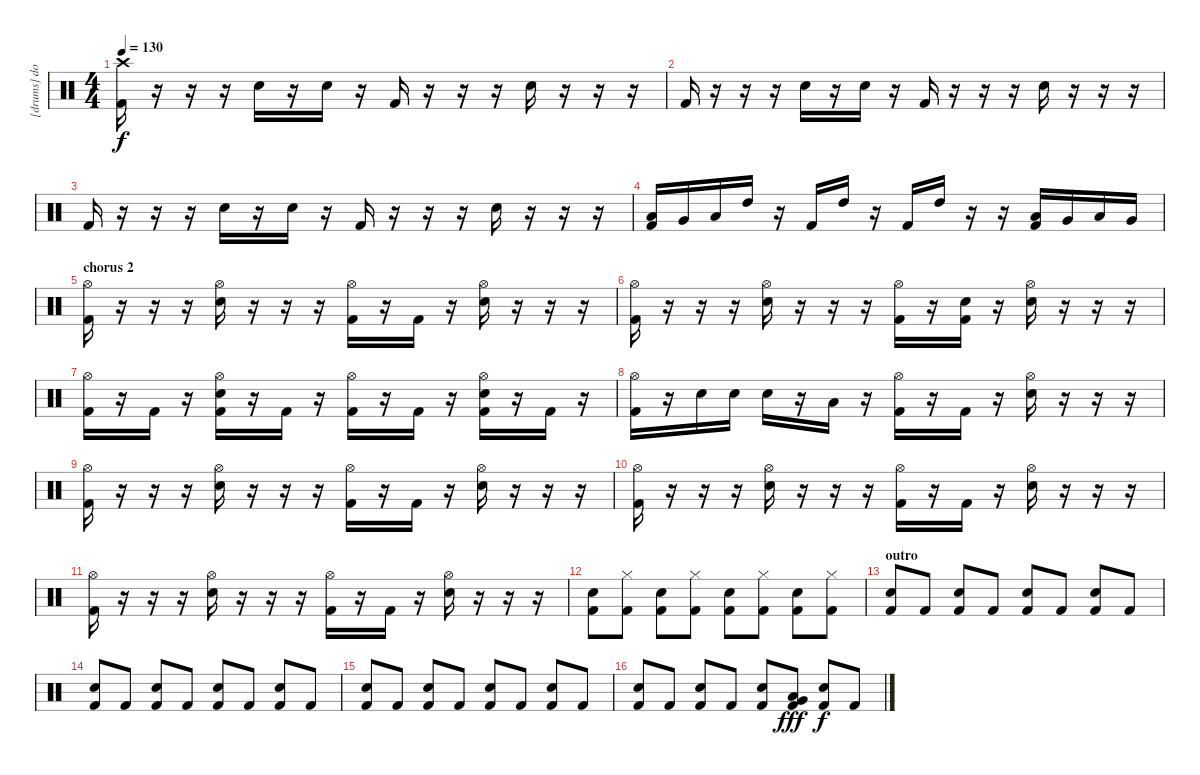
\track ("[drums] dom" "[drums] do") {instrument percussion}
\staff {score}
\articulation defaults
\ts (4 4)
\tempo 130
\clef neutral
\ks c
("Crash high (hit)" "Kick (hit) 2").16{dy f} r.16 r.16 r.16 "Snare (hit) 2".16 r.16 "Snare (hit) 2".16 r.16 "Kick (hit) 2".16 r.16 r.16 r.16 "Snare (hit) 2".16 r.16 r.16 r.16 |
"Kick (hit) 2".16 r.16 r.16 r.16 "Snare (hit) 2".16 r.16 "Snare (hit) 2".16 r.16 "Kick (hit) 2".16 r.16 r.16 r.16 "Snare (hit) 2".16 r.16 r.16 r.16 |
"Kick (hit) 2".16 r.16 r.16 r.16 "Snare (hit) 2".16 r.16 "Snare (hit) 2".16 r.16 "Kick (hit) 2".16 r.16 r.16 r.16 "Snare (hit) 2".16 r.16 r.16 r.16 |
("Low Floor Tom (hit)" "Kick (hit) 2").16 "Very Low Tom (hit)".16 "Low Floor Tom (hit)".16 "High Tom (hit)".16 r.16 "Kick (hit) 2".16 "High Tom (hit)".16 r.16 "Kick (hit) 2".16 "High Tom (hit)".16 r.16 r.16 ("Low Floor Tom (hit)" "Kick (hit) 2").16 "Very Low Tom (hit)".16 "Low Floor Tom (hit)".16 "Very Low Tom (hit)".16 |
\section ("" "chorus 2")
("Hi-Hat (open)" "Kick (hit) 2").16 r.16 r.16 r.16 ("Hi-Hat (open)" "Snare (hit) 2").16 r.16 r.16 r.16 ("Hi-Hat (open)" "Kick (hit) 2").16 r.16 "Kick (hit) 2".16 r.16 ("Hi-Hat (open)" "Snare (hit) 2").16 r.16 r.16 r.16 |
("Hi-Hat (open)" "Kick (hit) 2").16 r.16 r.16 r.16 ("Hi-Hat (open)" "Snare (hit) 2").16 r.16 r.16 r.16 ("Hi-Hat (open)" "Kick (hit) 2").16 r.16 ("Snare (hit) 2" "Kick (hit) 2").16 r.16 ("Hi-Hat (open)" "Snare (hit) 2").16 r.16 r.16 r.16 |
("Hi-Hat (open)" "Kick (hit) 2").16 r.16 "Kick (hit) 2".16 r.16 ("Hi-Hat (open)" "Snare (hit) 2" "Kick (hit) 2").16 r.16 "Kick (hit) 2".16 r.16 ("Hi-Hat (open)" "Kick (hit) 2").16 r.16 "Kick (hit) 2".16 r.16 ("Hi-Hat (open)" "Snare (hit) 2" "Kick (hit) 2").16 r.16 "Kick (hit) 2".16 r.16 |
("Hi-Hat (open)" "Kick (hit) 2").16 r.16 "Snare (hit) 2".16 "Snare (hit) 2".16 "Snare (hit) 2".16 r.16 "Low Floor Tom (hit)".16 r.16 ("Hi-Hat (open)" "Kick (hit) 2").16 r.16 "Kick (hit) 2".16 r.16 ("Hi-Hat (open)" "Snare (hit) 2").16 r.16 r.16 r.16 |
("Hi-Hat (open)" "Kick (hit) 2").16 r.16 r.16 r.16 ("Hi-Hat (open)" "Snare (hit) 2").16 r.16 r.16 r.16 ("Hi-Hat (open)" "Kick (hit) 2").16 r.16 "Kick (hit) 2".16 r.16 ("Hi-Hat (open)" "Snare (hit) 2").16 r.16 r.16 r.16 |
("Hi-Hat (open)" "Kick (hit) 2").16 r.16 r.16 r.16 ("Hi-Hat (open)" "Snare (hit) 2").16 r.16 r.16 r.16 ("Hi-Hat (open)" "Kick (hit) 2").16 r.16 "Kick (hit) 2".16 r.16 ("Hi-Hat (open)" "Snare (hit) 2").16 r.16 r.16 r.16 |
("Hi-Hat (open)" "Kick (hit) 2").16 r.16 r.16 r.16 ("Hi-Hat (open)" "Snare (hit) 2").16 r.16 r.16 r.16 ("Hi-Hat (open)" "Kick (hit) 2").16 r.16 "Kick (hit) 2".16 r.16 ("Hi-Hat (open)" "Snare (hit) 2").16 r.16 r.16 r.16 |
("Snare (hit) 2" "Kick (hit) 2").8 ("Hi-Hat (closed)" "Kick (hit) 2").8 ("Snare (hit) 2" "Kick (hit) 2").8 ("Hi-Hat (closed)" "Kick (hit) 2").8 ("Snare (hit) 2" "Kick (hit) 2").8 ("Hi-Hat (closed)" "Kick (hit) 2").8 ("Snare (hit) 2" "Kick (hit) 2").8 ("Hi-Hat (closed)" "Kick (hit) 2").8 |
\section ("" "outro")
("Snare (hit) 2" "Kick (hit) 2").8 "Kick (hit) 2".8 ("Snare (hit) 2" "Kick (hit) 2").8 "Kick (hit) 2".8 ("Snare (hit) 2" "Kick (hit) 2").8 "Kick (hit) 2".8 ("Snare (hit) 2" "Kick (hit) 2").8 "Kick (hit) 2".8 |
("Snare (hit) 2" "Kick (hit) 2").8 "Kick (hit) 2".8 ("Snare (hit) 2" "Kick (hit) 2").8 "Kick (hit) 2".8 ("Snare (hit) 2" "Kick (hit) 2").8 "Kick (hit) 2".8 ("Snare (hit) 2" "Kick (hit) 2").8 "Kick (hit) 2".8 |
("Snare (hit) 2" "Kick (hit) 2").8 "Kick (hit) 2".8 ("Snare (hit) 2" "Kick (hit) 2").8 "Kick (hit) 2".8 ("Snare (hit) 2" "Kick (hit) 2").8 "Kick (hit) 2".8 ("Snare (hit) 2" "Kick (hit) 2").8 "Kick (hit) 2".8 |
("Snare (hit) 2" "Kick (hit) 2").8 "Kick (hit) 2".8 ("Snare (hit) 2" "Kick (hit) 2").8 "Kick (hit) 2".8 ("Snare (hit) 2" "Kick (hit) 2").8 ("Low Floor Tom (hit)" "Very Low Tom (hit)" "Kick (hit) 2").8{dy fff} ("Snare (hit) 2" "Kick (hit) 2").8{dy f} "Kick (hit) 2".8
